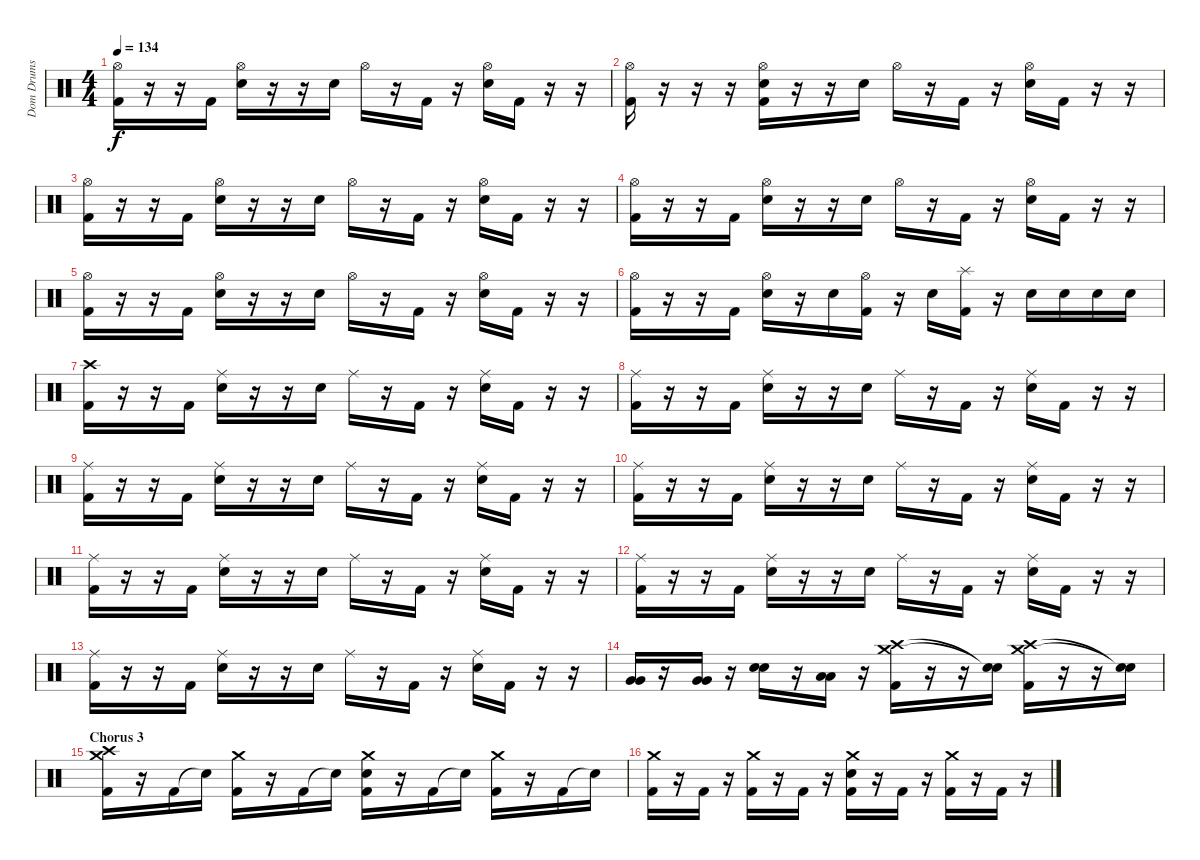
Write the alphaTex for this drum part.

\track ("Dom Drums" "Dom Drums") {instrument percussion}
\staff {score}
\articulation defaults
\ts (4 4)
\tempo 134
\clef neutral
\ks c
("Hi-Hat (open)" "Kick (hit) 2").16{dy f} r.16 r.16 "Kick (hit) 2".16 ("Hi-Hat (open)" "Electric Snare (hit)").16 r.16 r.16 "Electric Snare (hit)".16 "Hi-Hat (open)".16 r.16 "Kick (hit) 2".16 r.16 ("Hi-Hat (open)" "Electric Snare (hit)").16 "Kick (hit) 2".16 r.16 r.16 |
("Hi-Hat (open)" "Kick (hit) 2").16 r.16 r.16 r.16 ("Hi-Hat (open)" "Electric Snare (hit)" "Kick (hit) 2").16 r.16 r.16 "Electric Snare (hit)".16 "Hi-Hat (open)".16 r.16 "Kick (hit) 2".16 r.16 ("Hi-Hat (open)" "Electric Snare (hit)").16 "Kick (hit) 2".16 r.16 r.16 |
("Hi-Hat (open)" "Kick (hit) 2").16 r.16 r.16 "Kick (hit) 2".16 ("Hi-Hat (open)" "Electric Snare (hit)").16 r.16 r.16 "Electric Snare (hit)".16 "Hi-Hat (open)".16 r.16 "Kick (hit) 2".16 r.16 ("Hi-Hat (open)" "Electric Snare (hit)").16 "Kick (hit) 2".16 r.16 r.16 |
("Hi-Hat (open)" "Kick (hit) 2").16 r.16 r.16 "Kick (hit) 2".16 ("Hi-Hat (open)" "Electric Snare (hit)").16 r.16 r.16 "Electric Snare (hit)".16 "Hi-Hat (open)".16 r.16 "Kick (hit) 2".16 r.16 ("Hi-Hat (open)" "Electric Snare (hit)").16 "Kick (hit) 2".16 r.16 r.16 |
("Hi-Hat (open)" "Kick (hit) 2").16 r.16 r.16 "Kick (hit) 2".16 ("Hi-Hat (open)" "Electric Snare (hit)").16 r.16 r.16 "Electric Snare (hit)".16 "Hi-Hat (open)".16 r.16 "Kick (hit) 2".16 r.16 ("Hi-Hat (open)" "Electric Snare (hit)").16 "Kick (hit) 2".16 r.16 r.16 |
("Hi-Hat (open)" "Kick (hit) 2").16 r.16 r.16 "Kick (hit) 2".16 ("Hi-Hat (open)" "Electric Snare (hit)").16 r.16 "Electric Snare (hit)".16 ("Hi-Hat (open)" "Kick (hit) 2").16 r.16 "Electric Snare (hit)".16 ("Splash (hit)" "Kick (hit) 2").16 r.16 "Electric Snare (hit)".16 "Electric Snare (hit)".16 "Electric Snare (hit)".16 "Electric Snare (hit)".16 |
("Crash high (hit)" "Kick (hit) 2").16 r.16 r.16 "Kick (hit) 2".16 ("Ride (middle)" "Electric Snare (hit)").16 r.16 r.16 "Electric Snare (hit)".16 "Ride (middle)".16 r.16 "Kick (hit) 2".16 r.16 ("Ride (middle)" "Electric Snare (hit)").16 "Kick (hit) 2".16 r.16 r.16 |
("Ride (middle)" "Kick (hit) 2").16 r.16 r.16 "Kick (hit) 2".16 ("Ride (middle)" "Electric Snare (hit)").16 r.16 r.16 "Electric Snare (hit)".16 "Ride (middle)".16 r.16 "Kick (hit) 2".16 r.16 ("Ride (middle)" "Electric Snare (hit)").16 "Kick (hit) 2".16 r.16 r.16 |
("Ride (middle)" "Kick (hit) 2").16 r.16 r.16 "Kick (hit) 2".16 ("Ride (middle)" "Electric Snare (hit)").16 r.16 r.16 "Electric Snare (hit)".16 "Ride (middle)".16 r.16 "Kick (hit) 2".16 r.16 ("Ride (middle)" "Electric Snare (hit)").16 "Kick (hit) 2".16 r.16 r.16 |
("Ride (middle)" "Kick (hit) 2").16 r.16 r.16 "Kick (hit) 2".16 ("Ride (middle)" "Electric Snare (hit)").16 r.16 r.16 "Electric Snare (hit)".16 "Ride (middle)".16 r.16 "Kick (hit) 2".16 r.16 ("Ride (middle)" "Electric Snare (hit)").16 "Kick (hit) 2".16 r.16 r.16 |
("Ride (middle)" "Kick (hit) 2").16 r.16 r.16 "Kick (hit) 2".16 ("Ride (middle)" "Electric Snare (hit)").16 r.16 r.16 "Electric Snare (hit)".16 "Ride (middle)".16 r.16 "Kick (hit) 2".16 r.16 ("Ride (middle)" "Electric Snare (hit)").16 "Kick (hit) 2".16 r.16 r.16 |
("Ride (middle)" "Kick (hit) 2").16 r.16 r.16 "Kick (hit) 2".16 ("Ride (middle)" "Electric Snare (hit)").16 r.16 r.16 "Electric Snare (hit)".16 "Ride (middle)".16 r.16 "Kick (hit) 2".16 r.16 ("Ride (middle)" "Electric Snare (hit)").16 "Kick (hit) 2".16 r.16 r.16 |
("Ride (middle)" "Kick (hit) 2").16 r.16 r.16 "Kick (hit) 2".16 ("Ride (middle)" "Electric Snare (hit)").16 r.16 r.16 "Electric Snare (hit)".16 "Ride (middle)".16 r.16 "Kick (hit) 2".16 r.16 ("Ride (middle)" "Electric Snare (hit)").16 "Kick (hit) 2".16 r.16 r.16 |
("Very Low Tom (hit)" "Very Low Tom (hit)").16 r.16 ("Very Low Tom (hit)" "Very Low Tom (hit)").16 r.16 ("Electric Snare (hit)" "Electric Snare (hit)").16 r.16 ("Low Tom (hit)" "Low Floor Tom (hit)").16 r.16 ("Crash high (hit)" "Crash medium (hit)" "Kick (hit) 2").16 r.16 r.16 ("Snare (hit)"{t} "Snare (hit)"{t}).16 ("Crash high (hit)" "Crash medium (hit)" "Kick (hit) 2").16 r.16 r.16 ("Snare (hit)"{t} "Snare (hit)"{t}).16 |
\section ("" "Chorus 3")
("Crash high (hit)" "Crash medium (hit)" "Kick (hit) 2").16 r.16 "Kick (hit) 2".16 "Snare (hit)"{t}.16 ("Crash medium (hit)" "Kick (hit) 2").16 r.16 "Kick (hit) 2".16 "Snare (hit)"{t}.16 ("Crash medium (hit)" "Electric Snare (hit)" "Kick (hit) 2").16 r.16 "Kick (hit) 2".16 "Snare (hit)"{t}.16 ("Crash medium (hit)" "Kick (hit) 2").16 r.16 "Kick (hit) 2".16 "Snare (hit)"{t}.16 |
("Crash medium (hit)" "Kick (hit) 2").16 r.16 "Kick (hit) 2".16 r.16 ("Crash medium (hit)" "Kick (hit) 2").16 r.16 "Kick (hit) 2".16 r.16 ("Crash medium (hit)" "Electric Snare (hit)" "Kick (hit) 2").16 r.16 "Kick (hit) 2".16 r.16 ("Crash medium (hit)" "Kick (hit) 2").16 r.16 "Kick (hit) 2".16 r.16
